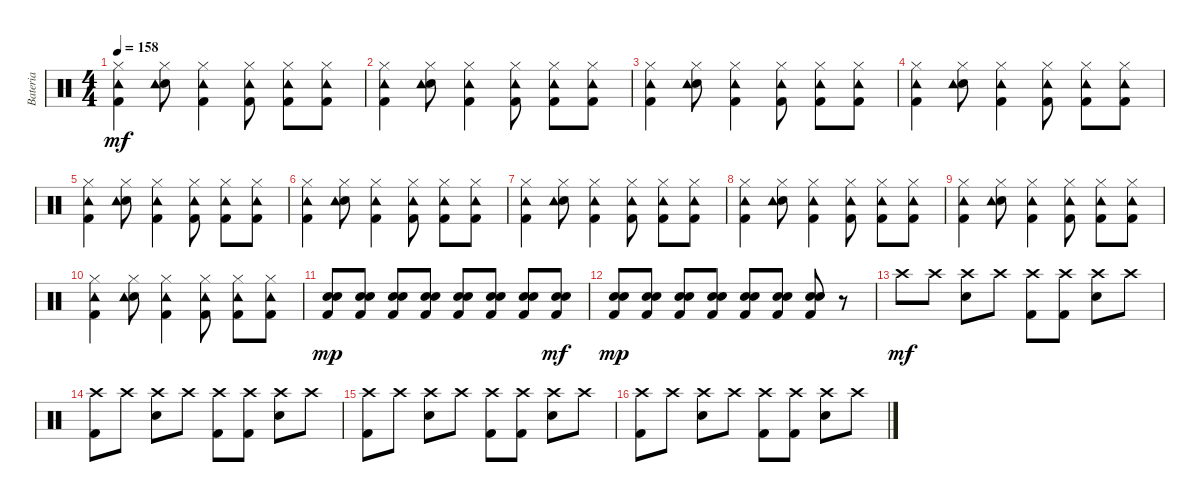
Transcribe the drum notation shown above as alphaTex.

\track ("Bateria" "Bateria") {instrument percussion}
\staff {score}
\articulation defaults
\ts (4 4)
\tempo 158
\clef neutral
\ks c
("Hi-Hat (closed)" "Kick (hit) 2" "Tambourine (hit)").4{dy mf} ("Hi-Hat (closed)" "Snare (hit) 2" "Tambourine (hit)").8 ("Hi-Hat (closed)" "Kick (hit) 2" "Tambourine (hit)").4 ("Hi-Hat (closed)" "Kick (hit) 2" "Tambourine (hit)").8 ("Hi-Hat (closed)" "Kick (hit) 2" "Tambourine (hit)").8 ("Hi-Hat (closed)" "Kick (hit) 2" "Tambourine (hit)").8 |
("Hi-Hat (closed)" "Kick (hit) 2" "Tambourine (hit)").4 ("Hi-Hat (closed)" "Snare (hit) 2" "Tambourine (hit)").8 ("Hi-Hat (closed)" "Kick (hit) 2" "Tambourine (hit)").4 ("Hi-Hat (closed)" "Kick (hit) 2" "Tambourine (hit)").8 ("Hi-Hat (closed)" "Kick (hit) 2" "Tambourine (hit)").8 ("Hi-Hat (closed)" "Kick (hit) 2" "Tambourine (hit)").8 |
("Hi-Hat (closed)" "Kick (hit) 2" "Tambourine (hit)").4 ("Hi-Hat (closed)" "Snare (hit) 2" "Tambourine (hit)").8 ("Hi-Hat (closed)" "Kick (hit) 2" "Tambourine (hit)").4 ("Hi-Hat (closed)" "Kick (hit) 2" "Tambourine (hit)").8 ("Hi-Hat (closed)" "Kick (hit) 2" "Tambourine (hit)").8 ("Hi-Hat (closed)" "Kick (hit) 2" "Tambourine (hit)").8 |
("Hi-Hat (closed)" "Kick (hit) 2" "Tambourine (hit)").4 ("Hi-Hat (closed)" "Snare (hit) 2" "Tambourine (hit)").8 ("Hi-Hat (closed)" "Kick (hit) 2" "Tambourine (hit)").4 ("Hi-Hat (closed)" "Kick (hit) 2" "Tambourine (hit)").8 ("Hi-Hat (closed)" "Kick (hit) 2" "Tambourine (hit)").8 ("Hi-Hat (closed)" "Kick (hit) 2" "Tambourine (hit)").8 |
("Hi-Hat (closed)" "Kick (hit) 2" "Tambourine (hit)").4 ("Hi-Hat (closed)" "Snare (hit) 2" "Tambourine (hit)").8 ("Hi-Hat (closed)" "Kick (hit) 2" "Tambourine (hit)").4 ("Hi-Hat (closed)" "Kick (hit) 2" "Tambourine (hit)").8 ("Hi-Hat (closed)" "Kick (hit) 2" "Tambourine (hit)").8 ("Hi-Hat (closed)" "Kick (hit) 2" "Tambourine (hit)").8 |
("Hi-Hat (closed)" "Kick (hit) 2" "Tambourine (hit)").4 ("Hi-Hat (closed)" "Snare (hit) 2" "Tambourine (hit)").8 ("Hi-Hat (closed)" "Kick (hit) 2" "Tambourine (hit)").4 ("Hi-Hat (closed)" "Kick (hit) 2" "Tambourine (hit)").8 ("Hi-Hat (closed)" "Kick (hit) 2" "Tambourine (hit)").8 ("Hi-Hat (closed)" "Kick (hit) 2" "Tambourine (hit)").8 |
("Hi-Hat (closed)" "Kick (hit) 2" "Tambourine (hit)").4 ("Hi-Hat (closed)" "Snare (hit) 2" "Tambourine (hit)").8 ("Hi-Hat (closed)" "Kick (hit) 2" "Tambourine (hit)").4 ("Hi-Hat (closed)" "Kick (hit) 2" "Tambourine (hit)").8 ("Hi-Hat (closed)" "Kick (hit) 2" "Tambourine (hit)").8 ("Hi-Hat (closed)" "Kick (hit) 2" "Tambourine (hit)").8 |
("Hi-Hat (closed)" "Kick (hit) 2" "Tambourine (hit)").4 ("Hi-Hat (closed)" "Snare (hit) 2" "Tambourine (hit)").8 ("Hi-Hat (closed)" "Kick (hit) 2" "Tambourine (hit)").4 ("Hi-Hat (closed)" "Kick (hit) 2" "Tambourine (hit)").8 ("Hi-Hat (closed)" "Kick (hit) 2" "Tambourine (hit)").8 ("Hi-Hat (closed)" "Kick (hit) 2" "Tambourine (hit)").8 |
("Hi-Hat (closed)" "Kick (hit) 2" "Tambourine (hit)").4 ("Hi-Hat (closed)" "Snare (hit) 2" "Tambourine (hit)").8 ("Hi-Hat (closed)" "Kick (hit) 2" "Tambourine (hit)").4 ("Hi-Hat (closed)" "Kick (hit) 2" "Tambourine (hit)").8 ("Hi-Hat (closed)" "Kick (hit) 2" "Tambourine (hit)").8 ("Hi-Hat (closed)" "Kick (hit) 2" "Tambourine (hit)").8 |
("Hi-Hat (closed)" "Kick (hit) 2" "Tambourine (hit)").4 ("Hi-Hat (closed)" "Snare (hit) 2" "Tambourine (hit)").8 ("Hi-Hat (closed)" "Kick (hit) 2" "Tambourine (hit)").4 ("Hi-Hat (closed)" "Kick (hit) 2" "Tambourine (hit)").8 ("Hi-Hat (closed)" "Kick (hit) 2" "Tambourine (hit)").8 ("Hi-Hat (closed)" "Kick (hit) 2" "Tambourine (hit)").8 |
("Electric Snare (hit)" "Kick (hit) 2" "Snare (hit) 2").8{dy mp} ("Electric Snare (hit)" "Kick (hit) 2" "Snare (hit) 2").8 ("Electric Snare (hit)" "Kick (hit) 2" "Snare (hit) 2").8 ("Electric Snare (hit)" "Kick (hit) 2" "Snare (hit) 2").8 ("Electric Snare (hit)" "Kick (hit) 2" "Snare (hit) 2").8 ("Electric Snare (hit)" "Kick (hit) 2" "Snare (hit) 2").8 ("Electric Snare (hit)" "Kick (hit) 2" "Snare (hit) 2").8 ("Electric Snare (hit)" "Kick (hit) 2" "Snare (hit) 2").8{dy mf} |
("Electric Snare (hit)" "Kick (hit) 2" "Snare (hit) 2").8{dy mp} ("Electric Snare (hit)" "Kick (hit) 2" "Snare (hit) 2").8 ("Electric Snare (hit)" "Kick (hit) 2" "Snare (hit) 2").8 ("Electric Snare (hit)" "Kick (hit) 2" "Snare (hit) 2").8 ("Electric Snare (hit)" "Kick (hit) 2" "Snare (hit) 2").8 ("Electric Snare (hit)" "Kick (hit) 2" "Snare (hit) 2").8 ("Electric Snare (hit)" "Kick (hit) 2" "Snare (hit) 2").8 r.8 |
"Crash high (hit)".8{dy mf} "Crash high (hit)".8 ("Crash high (hit)" "Electric Snare (hit)").8 "Crash high (hit)".8 ("Crash high (hit)" "Kick (hit) 2").8 ("Crash high (hit)" "Kick (hit) 2").8 ("Crash high (hit)" "Electric Snare (hit)").8 "Crash high (hit)".8 |
("Crash high (hit)" "Kick (hit) 2").8 "Crash high (hit)".8 ("Crash high (hit)" "Electric Snare (hit)").8 "Crash high (hit)".8 ("Crash high (hit)" "Kick (hit) 2").8 ("Crash high (hit)" "Kick (hit) 2").8 ("Crash high (hit)" "Electric Snare (hit)").8 "Crash high (hit)".8 |
("Crash high (hit)" "Kick (hit) 2").8 "Crash high (hit)".8 ("Crash high (hit)" "Electric Snare (hit)").8 "Crash high (hit)".8 ("Crash high (hit)" "Kick (hit) 2").8 ("Crash high (hit)" "Kick (hit) 2").8 ("Crash high (hit)" "Electric Snare (hit)").8 "Crash high (hit)".8 |
("Crash high (hit)" "Kick (hit) 2").8 "Crash high (hit)".8 ("Crash high (hit)" "Electric Snare (hit)").8 "Crash high (hit)".8 ("Crash high (hit)" "Kick (hit) 2").8 ("Crash high (hit)" "Kick (hit) 2").8 ("Crash high (hit)" "Electric Snare (hit)").8 "Crash high (hit)".8
